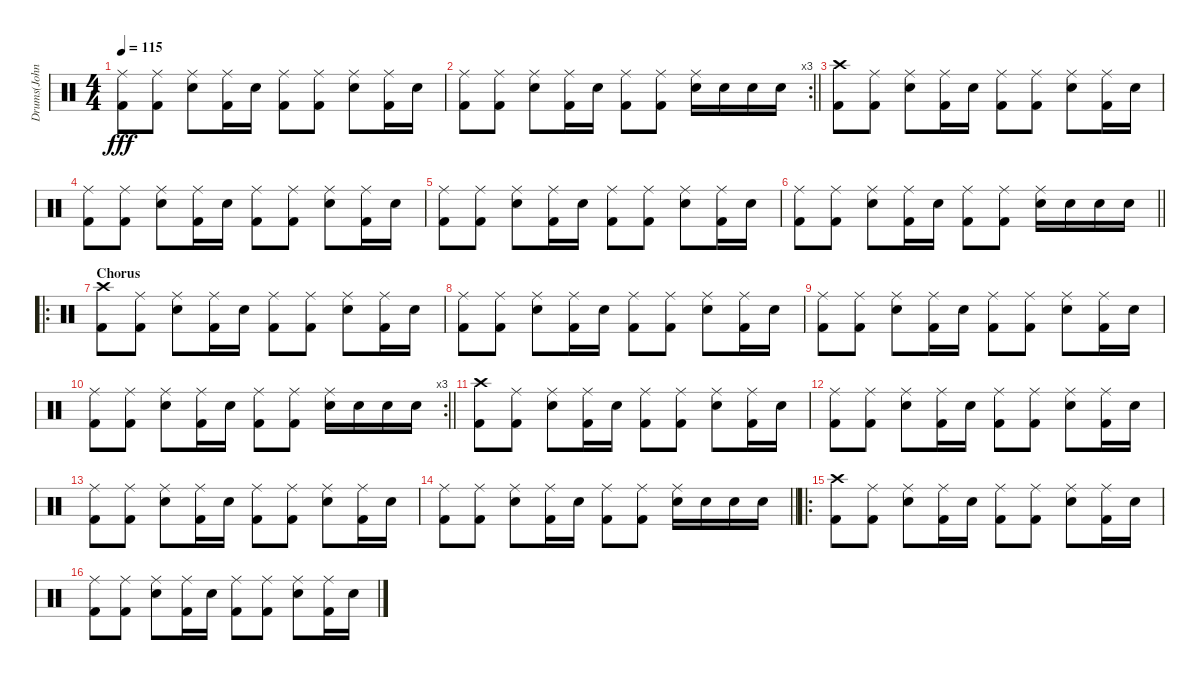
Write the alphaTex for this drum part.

\track ("Drums(John)" "Drums(John") {instrument percussion}
\staff {score}
\articulation defaults
\ts (4 4)
\tempo 115
\clef neutral
\ks c
("Ride (middle)" "Kick (hit) 2").8{dy fff} ("Ride (middle)" "Kick (hit) 2").8 ("Ride (middle)" "Snare (hit) 2").8 ("Ride (middle)" "Kick (hit) 2").16 "Snare (hit) 2".16 ("Ride (middle)" "Kick (hit) 2").8 ("Ride (middle)" "Kick (hit) 2").8 ("Ride (middle)" "Snare (hit) 2").8 ("Ride (middle)" "Kick (hit) 2").16 "Snare (hit) 2".16 |
\rc 3
\barLineRight lightlight
("Ride (middle)" "Kick (hit) 2").8 ("Ride (middle)" "Kick (hit) 2").8 ("Ride (middle)" "Snare (hit) 2").8 ("Ride (middle)" "Kick (hit) 2").16 "Snare (hit) 2".16 ("Ride (middle)" "Kick (hit) 2").8 ("Ride (middle)" "Kick (hit) 2").8 ("Ride (middle)" "Snare (hit) 2").16 "Snare (hit) 2".16 "Snare (hit) 2".16 "Snare (hit) 2".16 |
\section ("" "")
("Crash high (hit)" "Kick (hit) 2").8 ("Ride (middle)" "Kick (hit) 2").8 ("Ride (middle)" "Snare (hit) 2").8 ("Ride (middle)" "Kick (hit) 2").16 "Snare (hit) 2".16 ("Ride (middle)" "Kick (hit) 2").8 ("Ride (middle)" "Kick (hit) 2").8 ("Ride (middle)" "Snare (hit) 2").8 ("Ride (middle)" "Kick (hit) 2").16 "Snare (hit) 2".16 |
("Ride (middle)" "Kick (hit) 2").8 ("Ride (middle)" "Kick (hit) 2").8 ("Ride (middle)" "Snare (hit) 2").8 ("Ride (middle)" "Kick (hit) 2").16 "Snare (hit) 2".16 ("Ride (middle)" "Kick (hit) 2").8 ("Ride (middle)" "Kick (hit) 2").8 ("Ride (middle)" "Snare (hit) 2").8 ("Ride (middle)" "Kick (hit) 2").16 "Snare (hit) 2".16 |
("Ride (middle)" "Kick (hit) 2").8 ("Ride (middle)" "Kick (hit) 2").8 ("Ride (middle)" "Snare (hit) 2").8 ("Ride (middle)" "Kick (hit) 2").16 "Snare (hit) 2".16 ("Ride (middle)" "Kick (hit) 2").8 ("Ride (middle)" "Kick (hit) 2").8 ("Ride (middle)" "Snare (hit) 2").8 ("Ride (middle)" "Kick (hit) 2").16 "Snare (hit) 2".16 |
\barLineRight lightlight
("Ride (middle)" "Kick (hit) 2").8 ("Ride (middle)" "Kick (hit) 2").8 ("Ride (middle)" "Snare (hit) 2").8 ("Ride (middle)" "Kick (hit) 2").16 "Snare (hit) 2".16 ("Ride (middle)" "Kick (hit) 2").8 ("Ride (middle)" "Kick (hit) 2").8 ("Ride (middle)" "Snare (hit) 2").16 "Snare (hit) 2".16 "Snare (hit) 2".16 "Snare (hit) 2".16 |
\ro
\section ("" "Chorus")
("Crash high (hit)" "Kick (hit) 2").8 ("Ride (middle)" "Kick (hit) 2").8 ("Ride (middle)" "Snare (hit) 2").8 ("Ride (middle)" "Kick (hit) 2").16 "Snare (hit) 2".16 ("Ride (middle)" "Kick (hit) 2").8 ("Ride (middle)" "Kick (hit) 2").8 ("Ride (middle)" "Snare (hit) 2").8 ("Ride (middle)" "Kick (hit) 2").16 "Snare (hit) 2".16 |
("Ride (middle)" "Kick (hit) 2").8 ("Ride (middle)" "Kick (hit) 2").8 ("Ride (middle)" "Snare (hit) 2").8 ("Ride (middle)" "Kick (hit) 2").16 "Snare (hit) 2".16 ("Ride (middle)" "Kick (hit) 2").8 ("Ride (middle)" "Kick (hit) 2").8 ("Ride (middle)" "Snare (hit) 2").8 ("Ride (middle)" "Kick (hit) 2").16 "Snare (hit) 2".16 |
("Ride (middle)" "Kick (hit) 2").8 ("Ride (middle)" "Kick (hit) 2").8 ("Ride (middle)" "Snare (hit) 2").8 ("Ride (middle)" "Kick (hit) 2").16 "Snare (hit) 2".16 ("Ride (middle)" "Kick (hit) 2").8 ("Ride (middle)" "Kick (hit) 2").8 ("Ride (middle)" "Snare (hit) 2").8 ("Ride (middle)" "Kick (hit) 2").16 "Snare (hit) 2".16 |
\rc 3
\barLineRight lightlight
("Ride (middle)" "Kick (hit) 2").8 ("Ride (middle)" "Kick (hit) 2").8 ("Ride (middle)" "Snare (hit) 2").8 ("Ride (middle)" "Kick (hit) 2").16 "Snare (hit) 2".16 ("Ride (middle)" "Kick (hit) 2").8 ("Ride (middle)" "Kick (hit) 2").8 ("Ride (middle)" "Snare (hit) 2").16 "Snare (hit) 2".16 "Snare (hit) 2".16 "Snare (hit) 2".16 |
\section ("" "")
("Crash high (hit)" "Kick (hit) 2").8 ("Ride (middle)" "Kick (hit) 2").8 ("Ride (middle)" "Snare (hit) 2").8 ("Ride (middle)" "Kick (hit) 2").16 "Snare (hit) 2".16 ("Ride (middle)" "Kick (hit) 2").8 ("Ride (middle)" "Kick (hit) 2").8 ("Ride (middle)" "Snare (hit) 2").8 ("Ride (middle)" "Kick (hit) 2").16 "Snare (hit) 2".16 |
("Ride (middle)" "Kick (hit) 2").8 ("Ride (middle)" "Kick (hit) 2").8 ("Ride (middle)" "Snare (hit) 2").8 ("Ride (middle)" "Kick (hit) 2").16 "Snare (hit) 2".16 ("Ride (middle)" "Kick (hit) 2").8 ("Ride (middle)" "Kick (hit) 2").8 ("Ride (middle)" "Snare (hit) 2").8 ("Ride (middle)" "Kick (hit) 2").16 "Snare (hit) 2".16 |
("Ride (middle)" "Kick (hit) 2").8 ("Ride (middle)" "Kick (hit) 2").8 ("Ride (middle)" "Snare (hit) 2").8 ("Ride (middle)" "Kick (hit) 2").16 "Snare (hit) 2".16 ("Ride (middle)" "Kick (hit) 2").8 ("Ride (middle)" "Kick (hit) 2").8 ("Ride (middle)" "Snare (hit) 2").8 ("Ride (middle)" "Kick (hit) 2").16 "Snare (hit) 2".16 |
\barLineRight lightlight
("Ride (middle)" "Kick (hit) 2").8 ("Ride (middle)" "Kick (hit) 2").8 ("Ride (middle)" "Snare (hit) 2").8 ("Ride (middle)" "Kick (hit) 2").16 "Snare (hit) 2".16 ("Ride (middle)" "Kick (hit) 2").8 ("Ride (middle)" "Kick (hit) 2").8 ("Ride (middle)" "Snare (hit) 2").16 "Snare (hit) 2".16 "Snare (hit) 2".16 "Snare (hit) 2".16 |
\ro
\section ("" "")
("Crash high (hit)" "Kick (hit) 2").8 ("Ride (middle)" "Kick (hit) 2").8 ("Ride (middle)" "Snare (hit) 2").8 ("Ride (middle)" "Kick (hit) 2").16 "Snare (hit) 2".16 ("Ride (middle)" "Kick (hit) 2").8 ("Ride (middle)" "Kick (hit) 2").8 ("Ride (middle)" "Snare (hit) 2").8 ("Ride (middle)" "Kick (hit) 2").16 "Snare (hit) 2".16 |
("Ride (middle)" "Kick (hit) 2").8 ("Ride (middle)" "Kick (hit) 2").8 ("Ride (middle)" "Snare (hit) 2").8 ("Ride (middle)" "Kick (hit) 2").16 "Snare (hit) 2".16 ("Ride (middle)" "Kick (hit) 2").8 ("Ride (middle)" "Kick (hit) 2").8 ("Ride (middle)" "Snare (hit) 2").8 ("Ride (middle)" "Kick (hit) 2").16 "Snare (hit) 2".16
